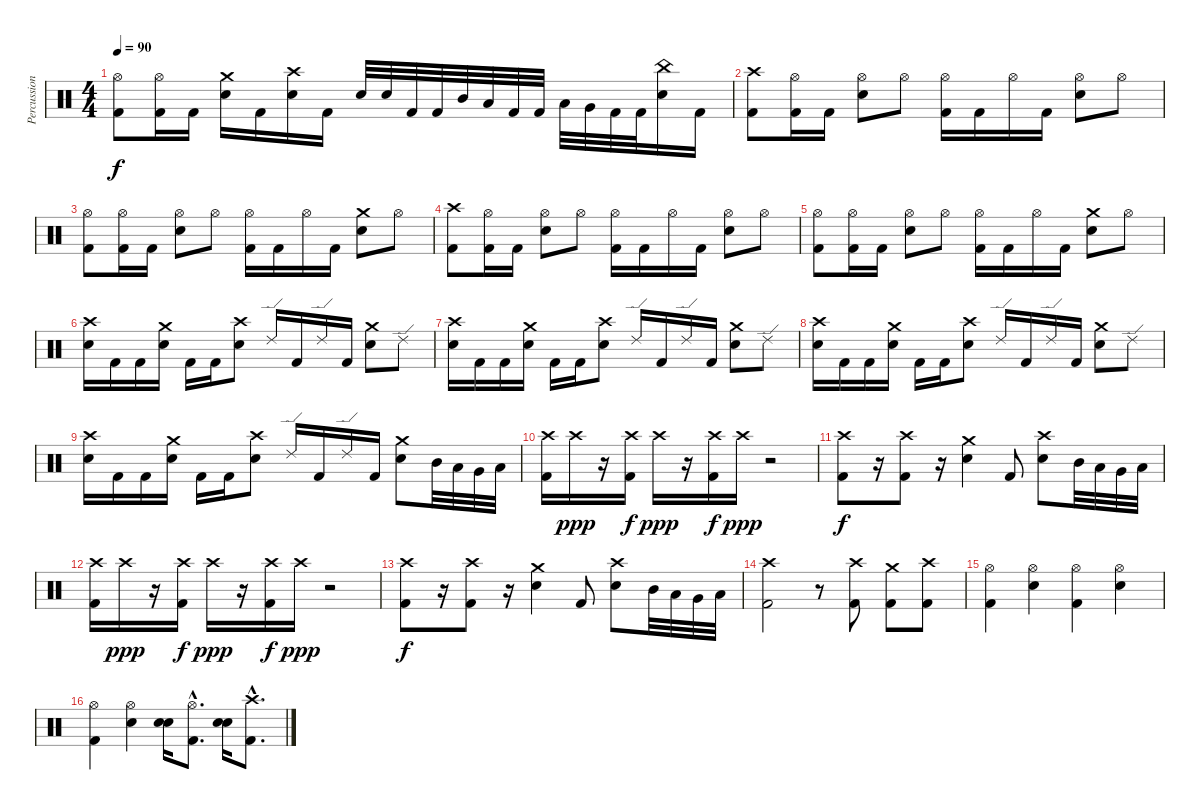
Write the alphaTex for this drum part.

\track ("Percussions" "Percussion") {instrument percussion}
\staff {score}
\articulation defaults
\ts (4 4)
\tempo 90
\clef neutral
\ks c
("Hi-Hat (open)" "Kick (hit) 2").8{dy f} ("Hi-Hat (open)" "Kick (hit) 2").16 "Kick (hit) 2".16 ("Crash medium (hit)" "Snare (hit) 2").16 "Kick (hit) 2".16 ("Crash high (hit)" "Snare (hit) 2").16 "Kick (hit) 2".16 "Snare (hit) 2".32 "Snare (hit) 2".32 "Kick (hit) 2".32 "Kick (hit) 2".32 "Mid Tom (hit)".32 "Low Tom (hit)".32 "Kick (hit) 2".32 "Kick (hit) 2".32 "Low Tom (hit)".32 "Very Low Tom (hit)".32 "Kick (hit) 2".32 "Kick (hit) 2".32 ("China (hit)" "Snare (hit) 2").16 "Kick (hit) 2".16 |
("Crash high (hit)" "Kick (hit) 2").8 ("Hi-Hat (open)" "Kick (hit) 2").16 "Kick (hit) 2".16 ("Hi-Hat (open)" "Snare (hit) 2").8 "Hi-Hat (open)".8 ("Hi-Hat (open)" "Kick (hit) 2").16 "Kick (hit) 2".16 "Hi-Hat (open)".16 "Kick (hit) 2".16 ("Hi-Hat (open)" "Snare (hit) 2").8 "Hi-Hat (open)".8 |
("Hi-Hat (open)" "Kick (hit) 2").8 ("Hi-Hat (open)" "Kick (hit) 2").16 "Kick (hit) 2".16 ("Hi-Hat (open)" "Snare (hit) 2").8 "Hi-Hat (open)".8 ("Hi-Hat (open)" "Kick (hit) 2").16 "Kick (hit) 2".16 "Hi-Hat (open)".16 "Kick (hit) 2".16 ("Crash medium (hit)" "Snare (hit) 2").8 "Hi-Hat (open)".8 |
("Crash high (hit)" "Kick (hit) 2").8 ("Hi-Hat (open)" "Kick (hit) 2").16 "Kick (hit) 2".16 ("Hi-Hat (open)" "Snare (hit) 2").8 "Hi-Hat (open)".8 ("Hi-Hat (open)" "Kick (hit) 2").16 "Kick (hit) 2".16 "Hi-Hat (open)".16 "Kick (hit) 2".16 ("Hi-Hat (open)" "Snare (hit) 2").8 "Hi-Hat (open)".8 |
("Hi-Hat (open)" "Kick (hit) 2").8 ("Hi-Hat (open)" "Kick (hit) 2").16 "Kick (hit) 2".16 ("Hi-Hat (open)" "Snare (hit) 2").8 "Hi-Hat (open)".8 ("Hi-Hat (open)" "Kick (hit) 2").16 "Kick (hit) 2".16 "Hi-Hat (open)".16 "Kick (hit) 2".16 ("Crash medium (hit)" "Snare (hit) 2").8 "Hi-Hat (open)".8 |
("Crash high (hit)" "Snare (hit) 2").16 "Kick (hit) 2".16 "Kick (hit) 2".16 ("Crash medium (hit)" "Snare (hit) 2").16 "Kick (hit) 2".16 "Kick (hit) 2".16 ("Crash high (hit)" "Snare (hit) 2").8 "Ride (edge) 2".16 "Kick (hit) 2".16 "Ride (edge) 2".16 "Kick (hit) 2".16 ("Crash medium (hit)" "Snare (hit) 2").8 "Ride (edge) 2".8 |
("Crash high (hit)" "Snare (hit) 2").16 "Kick (hit) 2".16 "Kick (hit) 2".16 ("Crash medium (hit)" "Snare (hit) 2").16 "Kick (hit) 2".16 "Kick (hit) 2".16 ("Crash high (hit)" "Snare (hit) 2").8 "Ride (edge) 2".16 "Kick (hit) 2".16 "Ride (edge) 2".16 "Kick (hit) 2".16 ("Crash medium (hit)" "Snare (hit) 2").8 "Ride (edge) 2".8 |
("Crash high (hit)" "Snare (hit) 2").16 "Kick (hit) 2".16 "Kick (hit) 2".16 ("Crash medium (hit)" "Snare (hit) 2").16 "Kick (hit) 2".16 "Kick (hit) 2".16 ("Crash high (hit)" "Snare (hit) 2").8 "Ride (edge) 2".16 "Kick (hit) 2".16 "Ride (edge) 2".16 "Kick (hit) 2".16 ("Crash medium (hit)" "Snare (hit) 2").8 "Ride (edge) 2".8 |
("Crash high (hit)" "Snare (hit) 2").16 "Kick (hit) 2".16 "Kick (hit) 2".16 ("Crash medium (hit)" "Snare (hit) 2").16 "Kick (hit) 2".16 "Kick (hit) 2".16 ("Crash high (hit)" "Snare (hit) 2").8 "Ride (edge) 2".16 "Kick (hit) 2".16 "Ride (edge) 2".16 "Kick (hit) 2".16 ("Crash medium (hit)" "Snare (hit) 2").8 "Mid Tom (hit)".32 "Low Tom (hit)".32 "Very Low Tom (hit)".32 "Low Floor Tom (hit)".32 |
("Crash high (hit)" "Kick (hit) 2").16 "Crash high (hit)".16{dy ppp} r.16 ("Crash high (hit)" "Kick (hit) 2").16{dy f} "Crash high (hit)".16{dy ppp} r.16 ("Crash high (hit)" "Kick (hit) 2").16{dy f} "Crash high (hit)".16{dy ppp} r.2 |
("Crash high (hit)" "Kick (hit) 2").8{dy f} r.16 ("Crash high (hit)" "Kick (hit) 2").8 r.16 ("Crash medium (hit)" "Snare (hit) 2").4 "Kick (hit) 2".8 ("Crash high (hit)" "Snare (hit) 2").8 "Mid Tom (hit)".32 "Low Tom (hit)".32 "Very Low Tom (hit)".32 "Low Floor Tom (hit)".32 |
("Crash high (hit)" "Kick (hit) 2").16 "Crash high (hit)".16{dy ppp} r.16 ("Crash high (hit)" "Kick (hit) 2").16{dy f} "Crash high (hit)".16{dy ppp} r.16 ("Crash high (hit)" "Kick (hit) 2").16{dy f} "Crash high (hit)".16{dy ppp} r.2 |
("Crash high (hit)" "Kick (hit) 2").8{dy f} r.16 ("Crash high (hit)" "Kick (hit) 2").8 r.16 ("Crash medium (hit)" "Snare (hit) 2").4 "Kick (hit) 2".8 ("Crash high (hit)" "Snare (hit) 2").8 "Mid Tom (hit)".32 "Low Tom (hit)".32 "Very Low Tom (hit)".32 "Low Floor Tom (hit)".32 |
("Crash high (hit)" "Kick (hit) 2").2 r.8 ("Crash high (hit)" "Kick (hit) 2").8 ("Crash medium (hit)" "Kick (hit) 2").8 ("Crash high (hit)" "Kick (hit) 2").8 |
("Hi-Hat (open)" "Kick (hit) 2").4 ("Hi-Hat (open)" "Snare (hit) 2").4 ("Hi-Hat (open)" "Kick (hit) 2").4 ("Hi-Hat (open)" "Snare (hit) 2").4 |
("Hi-Hat (open)" "Kick (hit) 2").4 ("Hi-Hat (open)" "Snare (hit) 2").4 ("Snare (hit) 2" "Snare (hit) 2").16{bd 480} ("Hi-Hat (open)"{hac} "Kick (hit) 2"{hac}).8{d} ("Snare (hit) 2" "Snare (hit) 2").16{bd 480} ("Crash high (hit)"{hac} "Kick (hit) 2"{hac}).8{d}
